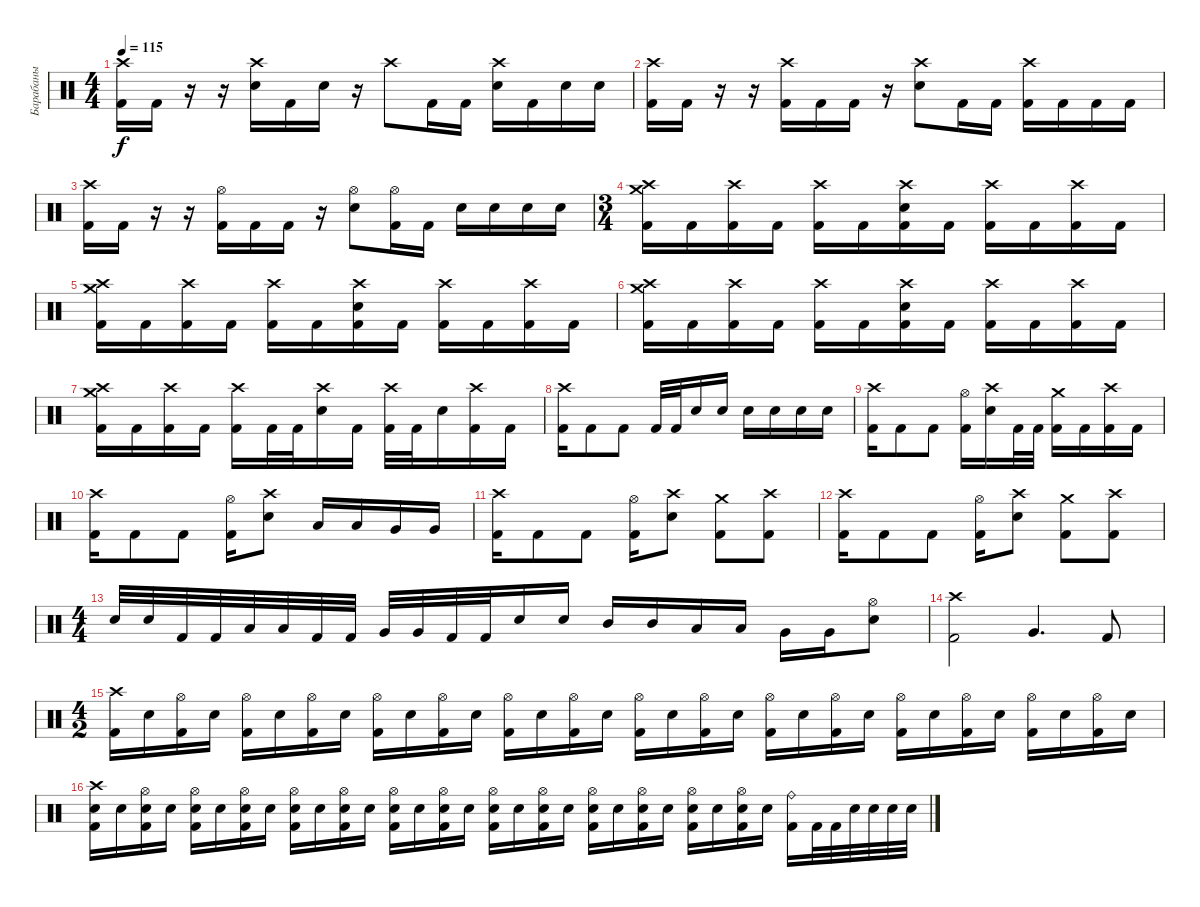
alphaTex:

\track ("Барабаны" "Барабаны") {instrument percussion}
\staff {score}
\articulation defaults
\ts (4 4)
\tempo 115
\clef neutral
\ks c
("Crash high (hit)" "Kick (hit) 2").16{dy f} "Kick (hit) 2".16 r.16 r.16 ("Crash high (hit)" "Electric Snare (hit)").16 "Kick (hit) 2".16 "Electric Snare (hit)".16 r.16 "Crash high (hit)".8 "Kick (hit) 2".16 "Kick (hit) 2".16 ("Crash high (hit)" "Electric Snare (hit)").16 "Kick (hit) 2".16 "Electric Snare (hit)".16 "Electric Snare (hit)".16 |
("Crash high (hit)" "Kick (hit) 2").16 "Kick (hit) 2".16 r.16 r.16 ("Crash high (hit)" "Kick (hit) 2").16 "Kick (hit) 2".16 "Kick (hit) 2".16 r.16 ("Crash high (hit)" "Electric Snare (hit)").8 "Kick (hit) 2".16 "Kick (hit) 2".16 ("Crash high (hit)" "Kick (hit) 2").16 "Kick (hit) 2".16 "Kick (hit) 2".16 "Kick (hit) 2".16 |
("Crash high (hit)" "Kick (hit) 2").16 "Kick (hit) 2".16 r.16 r.16 ("Hi-Hat (open)" "Kick (hit) 2").16 "Kick (hit) 2".16 "Kick (hit) 2".16 r.16 ("Hi-Hat (open)" "Electric Snare (hit)").8 ("Hi-Hat (open)" "Kick (hit) 2").16 "Kick (hit) 2".16 "Electric Snare (hit)".16 "Electric Snare (hit)".16 "Electric Snare (hit)".16 "Electric Snare (hit)".16 |
\ts (3 4)
("Crash high (hit)" "Crash medium (hit)" "Kick (hit) 2").16 "Kick (hit) 2".16 ("Crash high (hit)" "Kick (hit) 2").16 "Kick (hit) 2".16 ("Crash high (hit)" "Kick (hit) 2").16 "Kick (hit) 2".16 ("Crash high (hit)" "Electric Snare (hit)" "Kick (hit) 2").16 "Kick (hit) 2".16 ("Crash high (hit)" "Kick (hit) 2").16 "Kick (hit) 2".16 ("Crash high (hit)" "Kick (hit) 2").16 "Kick (hit) 2".16 |
("Crash high (hit)" "Crash medium (hit)" "Kick (hit) 2").16 "Kick (hit) 2".16 ("Crash high (hit)" "Kick (hit) 2").16 "Kick (hit) 2".16 ("Crash high (hit)" "Kick (hit) 2").16 "Kick (hit) 2".16 ("Crash high (hit)" "Electric Snare (hit)" "Kick (hit) 2").16 "Kick (hit) 2".16 ("Crash high (hit)" "Kick (hit) 2").16 "Kick (hit) 2".16 ("Crash high (hit)" "Kick (hit) 2").16 "Kick (hit) 2".16 |
("Crash high (hit)" "Crash medium (hit)" "Kick (hit) 2").16 "Kick (hit) 2".16 ("Crash high (hit)" "Kick (hit) 2").16 "Kick (hit) 2".16 ("Crash high (hit)" "Kick (hit) 2").16 "Kick (hit) 2".16 ("Crash high (hit)" "Electric Snare (hit)" "Kick (hit) 2").16 "Kick (hit) 2".16 ("Crash high (hit)" "Kick (hit) 2").16 "Kick (hit) 2".16 ("Crash high (hit)" "Kick (hit) 2").16 "Kick (hit) 2".16 |
("Crash high (hit)" "Crash medium (hit)" "Kick (hit) 2").16 "Kick (hit) 2".16 ("Crash high (hit)" "Kick (hit) 2").16 "Kick (hit) 2".16 ("Crash high (hit)" "Kick (hit) 2").16 "Kick (hit) 2".32 "Kick (hit) 2".32 ("Crash high (hit)" "Electric Snare (hit)").16 "Kick (hit) 2".16 ("Crash high (hit)" "Kick (hit) 2").32 "Kick (hit) 2".32 "Electric Snare (hit)".16 ("Crash high (hit)" "Kick (hit) 2").16 "Kick (hit) 2".16 |
("Crash high (hit)" "Kick (hit) 2").16 "Kick (hit) 2".8 "Kick (hit) 2".8 "Kick (hit) 2".32 "Kick (hit) 2".32 "Electric Snare (hit)".16 "Electric Snare (hit)".16 "Electric Snare (hit)".16 "Electric Snare (hit)".16 "Electric Snare (hit)".16 "Electric Snare (hit)".16 |
("Crash high (hit)" "Kick (hit) 2").16 "Kick (hit) 2".8 "Kick (hit) 2".8 ("Hi-Hat (open)" "Kick (hit) 2").16 ("Crash high (hit)" "Electric Snare (hit)").16 "Kick (hit) 2".32 "Kick (hit) 2".32 ("Crash medium (hit)" "Kick (hit) 2").16 "Kick (hit) 2".16 ("Crash high (hit)" "Kick (hit) 2").16 "Kick (hit) 2".16 |
("Crash high (hit)" "Kick (hit) 2").16 "Kick (hit) 2".8 "Kick (hit) 2".8 ("Hi-Hat (open)" "Kick (hit) 2").16 ("Crash high (hit)" "Electric Snare (hit)").8 "Low Tom (hit)".16 "Low Tom (hit)".16 "Very Low Tom (hit)".16 "Very Low Tom (hit)".16 |
("Crash high (hit)" "Kick (hit) 2").16 "Kick (hit) 2".8 "Kick (hit) 2".8 ("Hi-Hat (open)" "Kick (hit) 2").16 ("Crash high (hit)" "Electric Snare (hit)").8 ("Crash medium (hit)" "Kick (hit) 2").8 ("Crash high (hit)" "Kick (hit) 2").8 |
("Crash high (hit)" "Kick (hit) 2").16 "Kick (hit) 2".8 "Kick (hit) 2".8 ("Hi-Hat (open)" "Kick (hit) 2").16 ("Crash high (hit)" "Electric Snare (hit)").8 ("Crash medium (hit)" "Kick (hit) 2").8 ("Crash high (hit)" "Kick (hit) 2").8 |
\ts (4 4)
"Electric Snare (hit)".32 "Electric Snare (hit)".32 "Kick (hit) 2".32 "Kick (hit) 2".32 "Low Tom (hit)".32 "Low Tom (hit)".32 "Kick (hit) 2".32 "Kick (hit) 2".32 "Very Low Tom (hit)".32 "Very Low Tom (hit)".32 "Kick (hit) 2".32 "Kick (hit) 2".32 "Electric Snare (hit)".16 "Electric Snare (hit)".16 "Mid Tom (hit)".16 "Mid Tom (hit)".16 "Low Tom (hit)".16 "Low Tom (hit)".16 "Very Low Tom (hit)".16 "Very Low Tom (hit)".16 ("Hi-Hat (open)" "Electric Snare (hit)").8 |
("Crash high (hit)" "Kick (hit) 2").2 "Very Low Tom (hit)".4{d} "Kick (hit) 2".8 |
\ts (4 2)
("Crash high (hit)" "Kick (hit) 2").16 "Electric Snare (hit)".16 ("Hi-Hat (open)" "Kick (hit) 2").16 "Electric Snare (hit)".16 ("Hi-Hat (open)" "Kick (hit) 2").16 "Electric Snare (hit)".16 ("Hi-Hat (open)" "Kick (hit) 2").16 "Electric Snare (hit)".16 ("Hi-Hat (open)" "Kick (hit) 2").16 "Electric Snare (hit)".16 ("Hi-Hat (open)" "Kick (hit) 2").16 "Electric Snare (hit)".16 ("Hi-Hat (open)" "Kick (hit) 2").16 "Electric Snare (hit)".16 ("Hi-Hat (open)" "Kick (hit) 2").16 "Electric Snare (hit)".16 ("Hi-Hat (open)" "Kick (hit) 2").16 "Electric Snare (hit)".16 ("Hi-Hat (open)" "Kick (hit) 2").16 "Electric Snare (hit)".16 ("Hi-Hat (open)" "Kick (hit) 2").16 "Electric Snare (hit)".16 ("Hi-Hat (open)" "Kick (hit) 2").16 "Electric Snare (hit)".16 ("Hi-Hat (open)" "Kick (hit) 2").16 "Electric Snare (hit)".16 ("Hi-Hat (open)" "Kick (hit) 2").16 "Electric Snare (hit)".16 ("Hi-Hat (open)" "Kick (hit) 2").16 "Electric Snare (hit)".16 ("Hi-Hat (open)" "Kick (hit) 2").16 "Electric Snare (hit)".16 |
("Crash high (hit)" "Electric Snare (hit)" "Kick (hit) 2").16 "Electric Snare (hit)".16 ("Hi-Hat (open)" "Electric Snare (hit)" "Kick (hit) 2").16 "Electric Snare (hit)".16 ("Hi-Hat (open)" "Electric Snare (hit)" "Kick (hit) 2").16 "Electric Snare (hit)".16 ("Hi-Hat (open)" "Electric Snare (hit)" "Kick (hit) 2").16 "Electric Snare (hit)".16 ("Hi-Hat (open)" "Electric Snare (hit)" "Kick (hit) 2").16 "Electric Snare (hit)".16 ("Hi-Hat (open)" "Electric Snare (hit)" "Kick (hit) 2").16 "Electric Snare (hit)".16 ("Hi-Hat (open)" "Electric Snare (hit)" "Kick (hit) 2").16 "Electric Snare (hit)".16 ("Hi-Hat (open)" "Electric Snare (hit)" "Kick (hit) 2").16 "Electric Snare (hit)".16 ("Hi-Hat (open)" "Electric Snare (hit)" "Kick (hit) 2").16 "Electric Snare (hit)".16 ("Hi-Hat (open)" "Electric Snare (hit)" "Kick (hit) 2").16 "Electric Snare (hit)".16 ("Hi-Hat (open)" "Electric Snare (hit)" "Kick (hit) 2").16 "Electric Snare (hit)".16 ("Hi-Hat (open)" "Electric Snare (hit)" "Kick (hit) 2").16 "Electric Snare (hit)".16 ("Hi-Hat (open)" "Electric Snare (hit)" "Kick (hit) 2").16 "Electric Snare (hit)".16 ("Hi-Hat (open)" "Electric Snare (hit)" "Kick (hit) 2").16 "Electric Snare (hit)".16 ("Ride (bell)" "Kick (hit) 2").16 "Kick (hit) 2".32 "Kick (hit) 2".32 "Electric Snare (hit)".32 "Electric Snare (hit)".32 "Electric Snare (hit)".32 "Electric Snare (hit)".32
